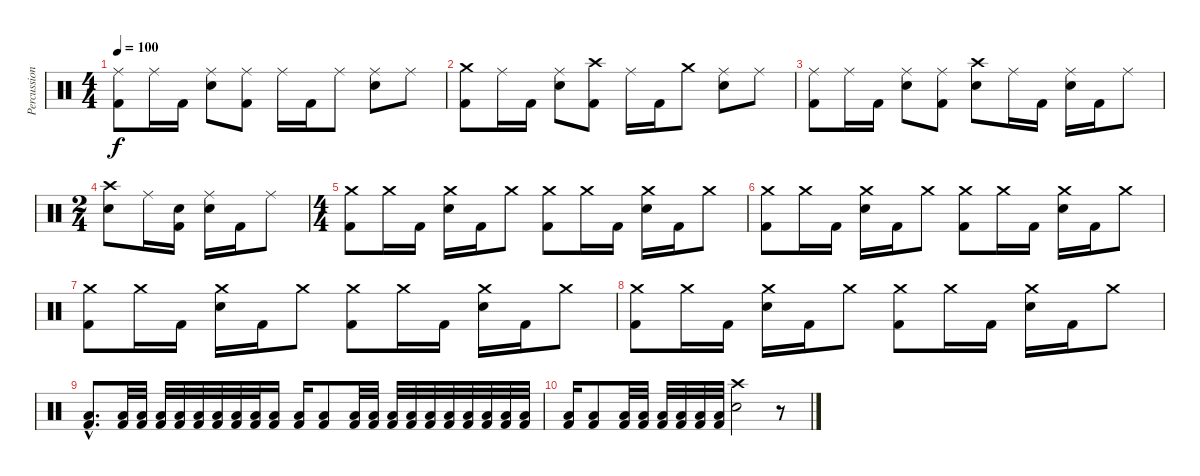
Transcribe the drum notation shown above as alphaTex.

\track ("Percussions" "Percussion") {instrument percussion}
\staff {score}
\articulation defaults
\ts (4 4)
\tempo 100
\clef neutral
\ks c
("Ride (middle)" "Kick (hit) 2").8{dy f} "Ride (middle)".16 "Kick (hit) 2".16 ("Electric Snare (hit)" "Ride (middle)").8 ("Ride (middle)" "Kick (hit) 2").8 "Ride (middle)".16 "Kick (hit) 2".16 "Ride (middle)".8 ("Electric Snare (hit)" "Ride (middle)").8 "Ride (middle)".8 |
("Crash medium (hit)" "Kick (hit) 2").8 "Ride (middle)".16 "Kick (hit) 2".16 ("Electric Snare (hit)" "Ride (middle)").8 ("Crash high (hit)" "Kick (hit) 2").8 "Ride (middle)".16 "Kick (hit) 2".16 "Crash medium (hit)".8 ("Electric Snare (hit)" "Ride (middle)").8 "Ride (middle)".8 |
("Ride (middle)" "Kick (hit) 2").8 "Ride (middle)".16 "Kick (hit) 2".16 ("Electric Snare (hit)" "Ride (middle)").8 ("Ride (middle)" "Kick (hit) 2").8 ("Electric Snare (hit)" "Crash high (hit)").8 "Ride (middle)".16 "Kick (hit) 2".16 ("Electric Snare (hit)" "Ride (middle)").16 "Kick (hit) 2".16 "Ride (middle)".8 |
\ts (2 4)
("Electric Snare (hit)" "Crash high (hit)").8 "Ride (middle)".16 ("Electric Snare (hit)" "Kick (hit) 2").16 ("Electric Snare (hit)" "Ride (middle)").16 "Kick (hit) 2".16 "Ride (middle)".8 |
\ts (4 4)
("Crash medium (hit)" "Kick (hit) 2").8 "Crash medium (hit)".16 "Kick (hit) 2".16 ("Electric Snare (hit)" "Crash medium (hit)").16 "Kick (hit) 2".16 "Crash medium (hit)".8 ("Crash medium (hit)" "Kick (hit) 2").8 "Crash medium (hit)".16 "Kick (hit) 2".16 ("Electric Snare (hit)" "Crash medium (hit)").16 "Kick (hit) 2".16 "Crash medium (hit)".8 |
("Crash medium (hit)" "Kick (hit) 2").8 "Crash medium (hit)".16 "Kick (hit) 2".16 ("Electric Snare (hit)" "Crash medium (hit)").16 "Kick (hit) 2".16 "Crash medium (hit)".8 ("Crash medium (hit)" "Kick (hit) 2").8 "Crash medium (hit)".16 "Kick (hit) 2".16 ("Electric Snare (hit)" "Crash medium (hit)").16 "Kick (hit) 2".16 "Crash medium (hit)".8 |
("Crash medium (hit)" "Kick (hit) 2").8 "Crash medium (hit)".16 "Kick (hit) 2".16 ("Electric Snare (hit)" "Crash medium (hit)").16 "Kick (hit) 2".16 "Crash medium (hit)".8 ("Crash medium (hit)" "Kick (hit) 2").8 "Crash medium (hit)".16 "Kick (hit) 2".16 ("Electric Snare (hit)" "Crash medium (hit)").16 "Kick (hit) 2".16 "Crash medium (hit)".8 |
("Crash medium (hit)" "Kick (hit) 2").8 "Crash medium (hit)".16 "Kick (hit) 2".16 ("Electric Snare (hit)" "Crash medium (hit)").16 "Kick (hit) 2".16 "Crash medium (hit)".8 ("Crash medium (hit)" "Kick (hit) 2").8 "Crash medium (hit)".16 "Kick (hit) 2".16 ("Electric Snare (hit)" "Crash medium (hit)").16 "Kick (hit) 2".16 "Crash medium (hit)".8 |
("Low Floor Tom (hit)"{hac} "Kick (hit) 2"{hac}).8{d} ("Low Floor Tom (hit)" "Kick (hit) 2").32 ("Low Floor Tom (hit)" "Kick (hit) 2").32 ("Low Floor Tom (hit)" "Kick (hit) 2").32 ("Low Floor Tom (hit)" "Kick (hit) 2").32 ("Low Floor Tom (hit)" "Kick (hit) 2").32 ("Low Floor Tom (hit)" "Kick (hit) 2").32 ("Low Floor Tom (hit)" "Kick (hit) 2").32 ("Low Floor Tom (hit)" "Kick (hit) 2").32 ("Low Floor Tom (hit)" "Kick (hit) 2").16 ("Low Floor Tom (hit)" "Kick (hit) 2").16 ("Low Floor Tom (hit)" "Kick (hit) 2").8 ("Low Floor Tom (hit)" "Kick (hit) 2").32 ("Low Floor Tom (hit)" "Kick (hit) 2").32 ("Low Floor Tom (hit)" "Kick (hit) 2").32 ("Low Floor Tom (hit)" "Kick (hit) 2").32 ("Low Floor Tom (hit)" "Kick (hit) 2").32 ("Low Floor Tom (hit)" "Kick (hit) 2").32 ("Low Floor Tom (hit)" "Kick (hit) 2").32 ("Low Floor Tom (hit)" "Kick (hit) 2").32 ("Low Floor Tom (hit)" "Kick (hit) 2").32 ("Low Floor Tom (hit)" "Kick (hit) 2").32 |
("Low Floor Tom (hit)" "Kick (hit) 2").16 ("Low Floor Tom (hit)" "Kick (hit) 2").8 ("Low Floor Tom (hit)" "Kick (hit) 2").32 ("Low Floor Tom (hit)" "Kick (hit) 2").32 ("Low Floor Tom (hit)" "Kick (hit) 2").32 ("Low Floor Tom (hit)" "Kick (hit) 2").32 ("Low Floor Tom (hit)" "Kick (hit) 2").32 ("Low Floor Tom (hit)" "Kick (hit) 2").32 ("Electric Snare (hit)" "Crash high (hit)").2 r.8
